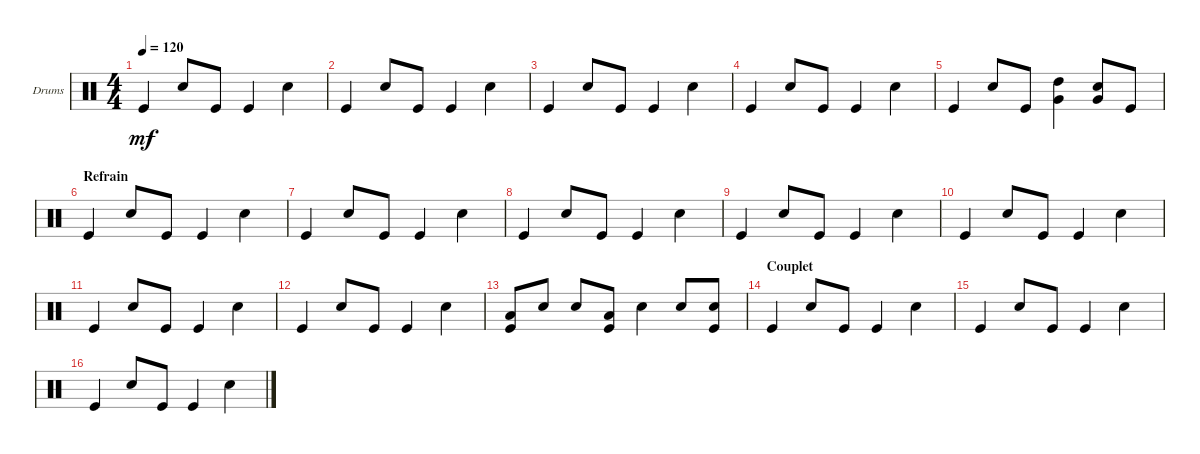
\defaultSystemsLayout 4
\bracketExtendMode groupsimilarinstruments
\firstSystemTrackNameOrientation horizontal
\otherSystemsTrackNameOrientation horizontal
\track ("Drumkit" "Drums") {multiBarRest instrument percussion}
\staff {score}
\articulation defaults
\ts (4 4)
\tempo 120
\clef neutral
\ks c "Kick (hit)".4{dy mf} "Snare (hit) 2".8 "Kick (hit)".8 "Kick (hit)".4 "Snare (hit) 2".4
|
"Kick (hit)".4 "Snare (hit) 2".8 "Kick (hit)".8 "Kick (hit)".4 "Snare (hit) 2".4 |
"Kick (hit)".4 "Snare (hit) 2".8 "Kick (hit)".8 "Kick (hit)".4 "Snare (hit) 2".4 |
"Kick (hit)".4 "Snare (hit) 2".8 "Kick (hit)".8 "Kick (hit)".4 "Snare (hit) 2".4 |
"Kick (hit)".4 "Snare (hit) 2".8 "Kick (hit)".8 ("High Tom (hit)" "Very Low Tom (hit)").4 ("Snare (hit) 2" "Very Low Tom (hit)").8 "Kick (hit)".8 |
\section ("" "Refrain")
"Kick (hit)".4 "Snare (hit) 2".8 "Kick (hit)".8 "Kick (hit)".4 "Snare (hit) 2".4 |
"Kick (hit)".4 "Snare (hit) 2".8 "Kick (hit)".8 "Kick (hit)".4 "Snare (hit) 2".4 |
"Kick (hit)".4 "Snare (hit) 2".8 "Kick (hit)".8 "Kick (hit)".4 "Snare (hit) 2".4 |
"Kick (hit)".4 "Snare (hit) 2".8 "Kick (hit)".8 "Kick (hit)".4 "Snare (hit) 2".4 |
"Kick (hit)".4 "Snare (hit) 2".8 "Kick (hit)".8 "Kick (hit)".4 "Snare (hit) 2".4 |
"Kick (hit)".4 "Snare (hit) 2".8 "Kick (hit)".8 "Kick (hit)".4 "Snare (hit) 2".4 |
"Kick (hit)".4 "Snare (hit) 2".8 "Kick (hit)".8 "Kick (hit)".4 "Snare (hit) 2".4 |
("Kick (hit)" "Low Tom (hit)").8 "Snare (hit) 2".8 "Snare (hit) 2".8 ("Kick (hit)" "Low Tom (hit)").8 "Snare (hit) 2".4 "Snare (hit) 2".8 ("Snare (hit) 2" "Kick (hit)").8 |
\section ("" "Couplet")
"Kick (hit)".4 "Snare (hit) 2".8 "Kick (hit)".8 "Kick (hit)".4 "Snare (hit) 2".4 |
"Kick (hit)".4 "Snare (hit) 2".8 "Kick (hit)".8 "Kick (hit)".4 "Snare (hit) 2".4 |
"Kick (hit)".4 "Snare (hit) 2".8 "Kick (hit)".8 "Kick (hit)".4 "Snare (hit) 2".4
